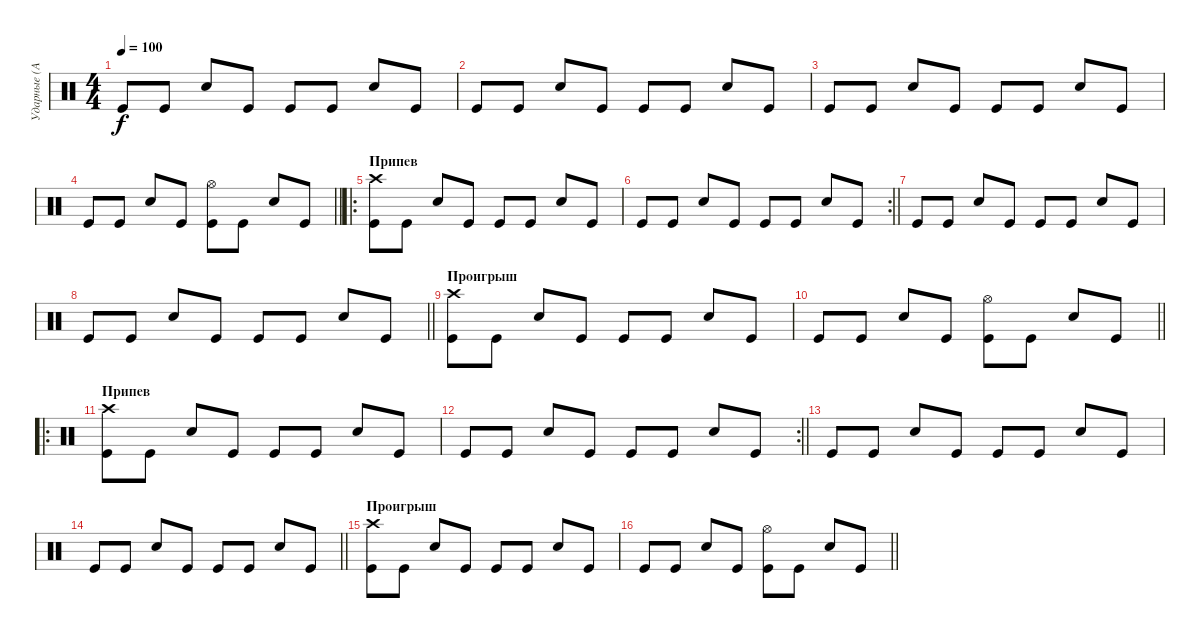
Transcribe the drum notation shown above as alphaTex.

\track ("Ударные (Александр Андрюшкин)" "Ударные (А") {instrument percussion}
\staff {score}
\articulation defaults
\ts (4 4)
\tempo 100
\clef neutral
\ks c "Kick (hit)".8{dy f} "Kick (hit)".8 "Snare (hit) 2".8 "Kick (hit)".8 "Kick (hit)".8 "Kick (hit)".8 "Snare (hit) 2".8 "Kick (hit)".8
|
"Kick (hit)".8 "Kick (hit)".8 "Snare (hit) 2".8 "Kick (hit)".8 "Kick (hit)".8 "Kick (hit)".8 "Snare (hit) 2".8 "Kick (hit)".8 |
"Kick (hit)".8 "Kick (hit)".8 "Snare (hit) 2".8 "Kick (hit)".8 "Kick (hit)".8 "Kick (hit)".8 "Snare (hit) 2".8 "Kick (hit)".8 |
\barLineRight lightlight "Kick (hit)".8 "Kick (hit)".8 "Snare (hit) 2".8 "Kick (hit)".8
("Hi-Hat (open)" "Kick (hit)").8 "Kick (hit)".8 "Snare (hit) 2".8 "Kick (hit)".8 |
\ro
\section ("" "Припев")
("Crash high (hit)" "Kick (hit)").8 "Kick (hit)".8 "Snare (hit) 2".8 "Kick (hit)".8 "Kick (hit)".8 "Kick (hit)".8 "Snare (hit) 2".8 "Kick (hit)".8 |
\rc 2
\barLineRight lightlight "Kick (hit)".8 "Kick (hit)".8 "Snare (hit) 2".8 "Kick (hit)".8 "Kick (hit)".8 "Kick (hit)".8 "Snare (hit) 2".8 "Kick (hit)".8
|
"Kick (hit)".8 "Kick (hit)".8 "Snare (hit) 2".8 "Kick (hit)".8 "Kick (hit)".8 "Kick (hit)".8 "Snare (hit) 2".8 "Kick (hit)".8 |
\barLineRight lightlight "Kick (hit)".8 "Kick (hit)".8 "Snare (hit) 2".8 "Kick (hit)".8 "Kick (hit)".8 "Kick (hit)".8 "Snare (hit) 2".8 "Kick (hit)".8
|
\section ("" "Проигрыш")
("Crash high (hit)" "Kick (hit)").8 "Kick (hit)".8 "Snare (hit) 2".8 "Kick (hit)".8 "Kick (hit)".8 "Kick (hit)".8 "Snare (hit) 2".8 "Kick (hit)".8 |
\barLineRight lightlight "Kick (hit)".8 "Kick (hit)".8 "Snare (hit) 2".8 "Kick (hit)".8
("Hi-Hat (open)" "Kick (hit)").8 "Kick (hit)".8 "Snare (hit) 2".8 "Kick (hit)".8 |
\ro
\section ("" "Припев")
("Crash high (hit)" "Kick (hit)").8 "Kick (hit)".8 "Snare (hit) 2".8 "Kick (hit)".8 "Kick (hit)".8 "Kick (hit)".8 "Snare (hit) 2".8 "Kick (hit)".8 |
\rc 2
\barLineRight lightlight "Kick (hit)".8 "Kick (hit)".8 "Snare (hit) 2".8 "Kick (hit)".8 "Kick (hit)".8 "Kick (hit)".8 "Snare (hit) 2".8 "Kick (hit)".8
|
"Kick (hit)".8 "Kick (hit)".8 "Snare (hit) 2".8 "Kick (hit)".8 "Kick (hit)".8 "Kick (hit)".8 "Snare (hit) 2".8 "Kick (hit)".8 |
\barLineRight lightlight "Kick (hit)".8 "Kick (hit)".8 "Snare (hit) 2".8 "Kick (hit)".8 "Kick (hit)".8 "Kick (hit)".8 "Snare (hit) 2".8 "Kick (hit)".8
|
\section ("" "Проигрыш")
("Crash high (hit)" "Kick (hit)").8 "Kick (hit)".8 "Snare (hit) 2".8 "Kick (hit)".8 "Kick (hit)".8 "Kick (hit)".8 "Snare (hit) 2".8 "Kick (hit)".8 |
\barLineRight lightlight "Kick (hit)".8 "Kick (hit)".8 "Snare (hit) 2".8 "Kick (hit)".8
("Hi-Hat (open)" "Kick (hit)").8 "Kick (hit)".8 "Snare (hit) 2".8 "Kick (hit)".8
